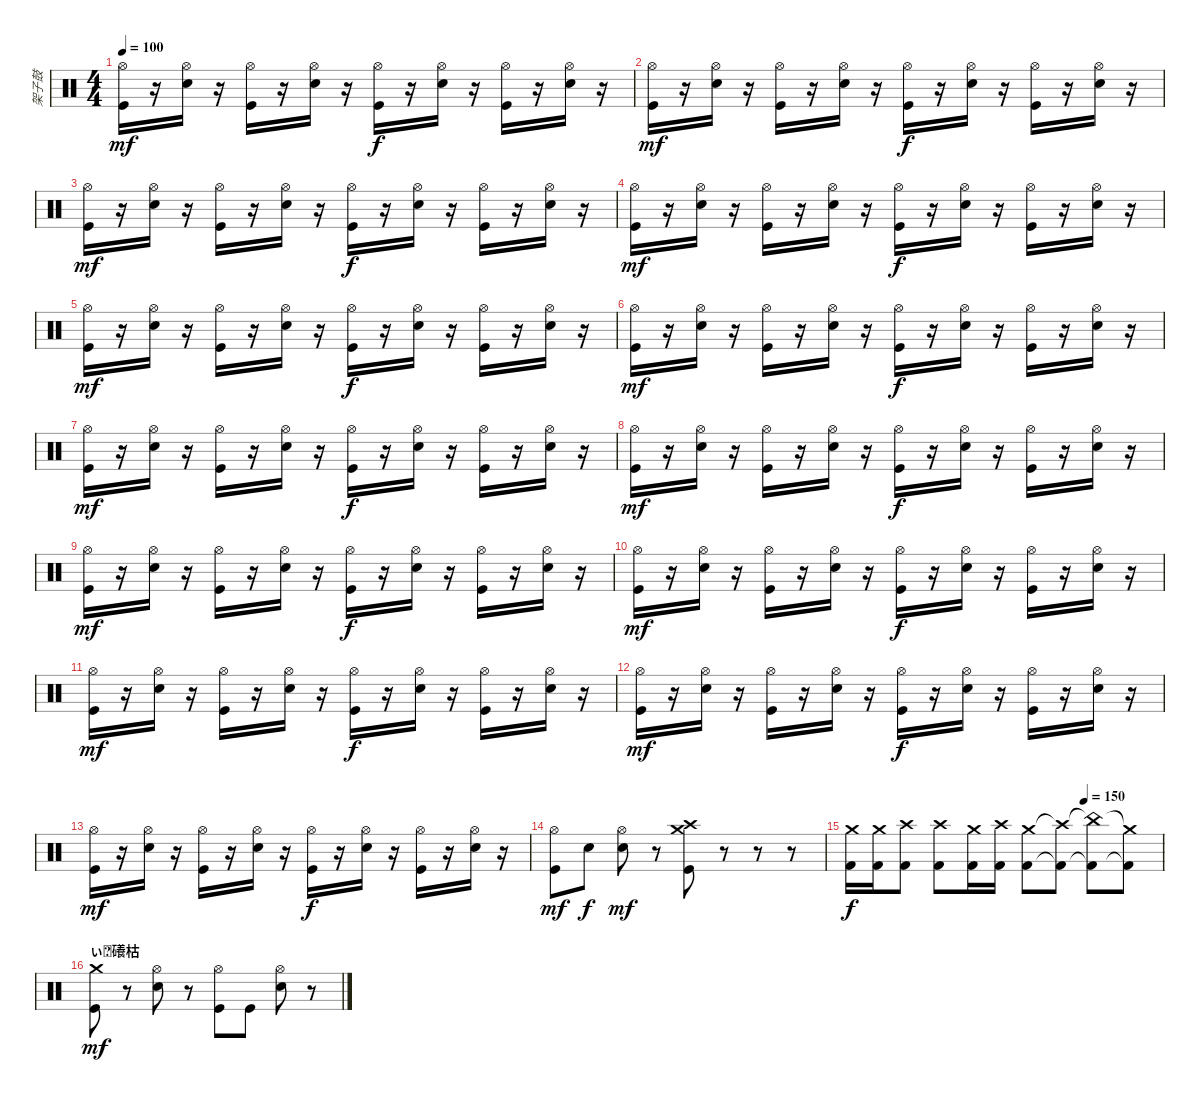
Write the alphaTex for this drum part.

\track ("架子鼓" "架子鼓") {instrument percussion}
\staff {score}
\articulation defaults
\ts (4 4)
\tempo 100
\clef neutral
\ks c
("Hi-Hat (open)" "Kick (hit)").16{dy mf} r.16 ("Hi-Hat (open)" "Snare (hit) 2").16 r.16 ("Hi-Hat (open)" "Kick (hit)").16 r.16 ("Hi-Hat (open)" "Snare (hit) 2").16 r.16 ("Hi-Hat (open)" "Kick (hit)").16{dy f} r.16 ("Hi-Hat (open)" "Snare (hit) 2").16 r.16 ("Hi-Hat (open)" "Kick (hit)").16 r.16 ("Hi-Hat (open)" "Snare (hit) 2").16 r.16 |
("Hi-Hat (open)" "Kick (hit)").16{dy mf} r.16 ("Hi-Hat (open)" "Snare (hit) 2").16 r.16 ("Hi-Hat (open)" "Kick (hit)").16 r.16 ("Hi-Hat (open)" "Snare (hit) 2").16 r.16 ("Hi-Hat (open)" "Kick (hit)").16{dy f} r.16 ("Hi-Hat (open)" "Snare (hit) 2").16 r.16 ("Hi-Hat (open)" "Kick (hit)").16 r.16 ("Hi-Hat (open)" "Snare (hit) 2").16 r.16 |
("Hi-Hat (open)" "Kick (hit)").16{dy mf} r.16 ("Hi-Hat (open)" "Snare (hit) 2").16 r.16 ("Hi-Hat (open)" "Kick (hit)").16 r.16 ("Hi-Hat (open)" "Snare (hit) 2").16 r.16 ("Hi-Hat (open)" "Kick (hit)").16{dy f} r.16 ("Hi-Hat (open)" "Snare (hit) 2").16 r.16 ("Hi-Hat (open)" "Kick (hit)").16 r.16 ("Hi-Hat (open)" "Snare (hit) 2").16 r.16 |
("Hi-Hat (open)" "Kick (hit)").16{dy mf} r.16 ("Hi-Hat (open)" "Snare (hit) 2").16 r.16 ("Hi-Hat (open)" "Kick (hit)").16 r.16 ("Hi-Hat (open)" "Snare (hit) 2").16 r.16 ("Hi-Hat (open)" "Kick (hit)").16{dy f} r.16 ("Hi-Hat (open)" "Snare (hit) 2").16 r.16 ("Hi-Hat (open)" "Kick (hit)").16 r.16 ("Hi-Hat (open)" "Snare (hit) 2").16 r.16 |
("Hi-Hat (open)" "Kick (hit)").16{dy mf} r.16 ("Hi-Hat (open)" "Snare (hit) 2").16 r.16 ("Hi-Hat (open)" "Kick (hit)").16 r.16 ("Hi-Hat (open)" "Snare (hit) 2").16 r.16 ("Hi-Hat (open)" "Kick (hit)").16{dy f} r.16 ("Hi-Hat (open)" "Snare (hit) 2").16 r.16 ("Hi-Hat (open)" "Kick (hit)").16 r.16 ("Hi-Hat (open)" "Snare (hit) 2").16 r.16 |
("Hi-Hat (open)" "Kick (hit)").16{dy mf} r.16 ("Hi-Hat (open)" "Snare (hit) 2").16 r.16 ("Hi-Hat (open)" "Kick (hit)").16 r.16 ("Hi-Hat (open)" "Snare (hit) 2").16 r.16 ("Hi-Hat (open)" "Kick (hit)").16{dy f} r.16 ("Hi-Hat (open)" "Snare (hit) 2").16 r.16 ("Hi-Hat (open)" "Kick (hit)").16 r.16 ("Hi-Hat (open)" "Snare (hit) 2").16 r.16 |
("Hi-Hat (open)" "Kick (hit)").16{dy mf} r.16 ("Hi-Hat (open)" "Snare (hit) 2").16 r.16 ("Hi-Hat (open)" "Kick (hit)").16 r.16 ("Hi-Hat (open)" "Snare (hit) 2").16 r.16 ("Hi-Hat (open)" "Kick (hit)").16{dy f} r.16 ("Hi-Hat (open)" "Snare (hit) 2").16 r.16 ("Hi-Hat (open)" "Kick (hit)").16 r.16 ("Hi-Hat (open)" "Snare (hit) 2").16 r.16 |
("Hi-Hat (open)" "Kick (hit)").16{dy mf} r.16 ("Hi-Hat (open)" "Snare (hit) 2").16 r.16 ("Hi-Hat (open)" "Kick (hit)").16 r.16 ("Hi-Hat (open)" "Snare (hit) 2").16 r.16 ("Hi-Hat (open)" "Kick (hit)").16{dy f} r.16 ("Hi-Hat (open)" "Snare (hit) 2").16 r.16 ("Hi-Hat (open)" "Kick (hit)").16 r.16 ("Hi-Hat (open)" "Snare (hit) 2").16 r.16 |
("Hi-Hat (open)" "Kick (hit)").16{dy mf} r.16 ("Hi-Hat (open)" "Snare (hit) 2").16 r.16 ("Hi-Hat (open)" "Kick (hit)").16 r.16 ("Hi-Hat (open)" "Snare (hit) 2").16 r.16 ("Hi-Hat (open)" "Kick (hit)").16{dy f} r.16 ("Hi-Hat (open)" "Snare (hit) 2").16 r.16 ("Hi-Hat (open)" "Kick (hit)").16 r.16 ("Hi-Hat (open)" "Snare (hit) 2").16 r.16 |
("Hi-Hat (open)" "Kick (hit)").16{dy mf} r.16 ("Hi-Hat (open)" "Snare (hit) 2").16 r.16 ("Hi-Hat (open)" "Kick (hit)").16 r.16 ("Hi-Hat (open)" "Snare (hit) 2").16 r.16 ("Hi-Hat (open)" "Kick (hit)").16{dy f} r.16 ("Hi-Hat (open)" "Snare (hit) 2").16 r.16 ("Hi-Hat (open)" "Kick (hit)").16 r.16 ("Hi-Hat (open)" "Snare (hit) 2").16 r.16 |
("Hi-Hat (open)" "Kick (hit)").16{dy mf} r.16 ("Hi-Hat (open)" "Snare (hit) 2").16 r.16 ("Hi-Hat (open)" "Kick (hit)").16 r.16 ("Hi-Hat (open)" "Snare (hit) 2").16 r.16 ("Hi-Hat (open)" "Kick (hit)").16{dy f} r.16 ("Hi-Hat (open)" "Snare (hit) 2").16 r.16 ("Hi-Hat (open)" "Kick (hit)").16 r.16 ("Hi-Hat (open)" "Snare (hit) 2").16 r.16 |
("Hi-Hat (open)" "Kick (hit)").16{dy mf} r.16 ("Hi-Hat (open)" "Snare (hit) 2").16 r.16 ("Hi-Hat (open)" "Kick (hit)").16 r.16 ("Hi-Hat (open)" "Snare (hit) 2").16 r.16 ("Hi-Hat (open)" "Kick (hit)").16{dy f} r.16 ("Hi-Hat (open)" "Snare (hit) 2").16 r.16 ("Hi-Hat (open)" "Kick (hit)").16 r.16 ("Hi-Hat (open)" "Snare (hit) 2").16 r.16 |
("Hi-Hat (open)" "Kick (hit)").16{dy mf} r.16 ("Hi-Hat (open)" "Snare (hit) 2").16 r.16 ("Hi-Hat (open)" "Kick (hit)").16 r.16 ("Hi-Hat (open)" "Snare (hit) 2").16 r.16 ("Hi-Hat (open)" "Kick (hit)").16{dy f} r.16 ("Hi-Hat (open)" "Snare (hit) 2").16 r.16 ("Hi-Hat (open)" "Kick (hit)").16 r.16 ("Hi-Hat (open)" "Snare (hit) 2").16 r.16 |
("Hi-Hat (open)" "Kick (hit)").8{dy mf} "Snare (hit) 2".8{dy f} ("Hi-Hat (open)" "Snare (hit) 2").8{dy mf} r.8 ("Crash medium (hit)" "Crash high (hit)" "Kick (hit)").8 r.8 r.8 r.8 |
\tempo (150 0.75)
("Crash medium (hit)" "Kick (hit) 2").16{dy f} ("Crash medium (hit)" "Kick (hit) 2").16 ("Crash high (hit)" "Kick (hit) 2").8 ("Crash high (hit)" "Kick (hit) 2").8 ("Crash medium (hit)" "Kick (hit) 2").16 ("Crash high (hit)" "Kick (hit) 2").16 ("Crash medium (hit)" "Kick (hit) 2").8 ("Crash high (hit)"{t} "Kick (hit) 2"{t}).8 ("China (hit)"{t} "Kick (hit) 2"{t}).8 ("Crash medium (hit)"{t} "Kick (hit) 2"{t}).8 |
\section ("" "ぃ礢枯")
("Crash medium (hit)" "Kick (hit)").8{dy mf} r.8 ("Hi-Hat (open)" "Snare (hit) 2").8 r.8 ("Hi-Hat (open)" "Kick (hit)").8 "Kick (hit)".8 ("Hi-Hat (open)" "Snare (hit) 2").8 r.8
